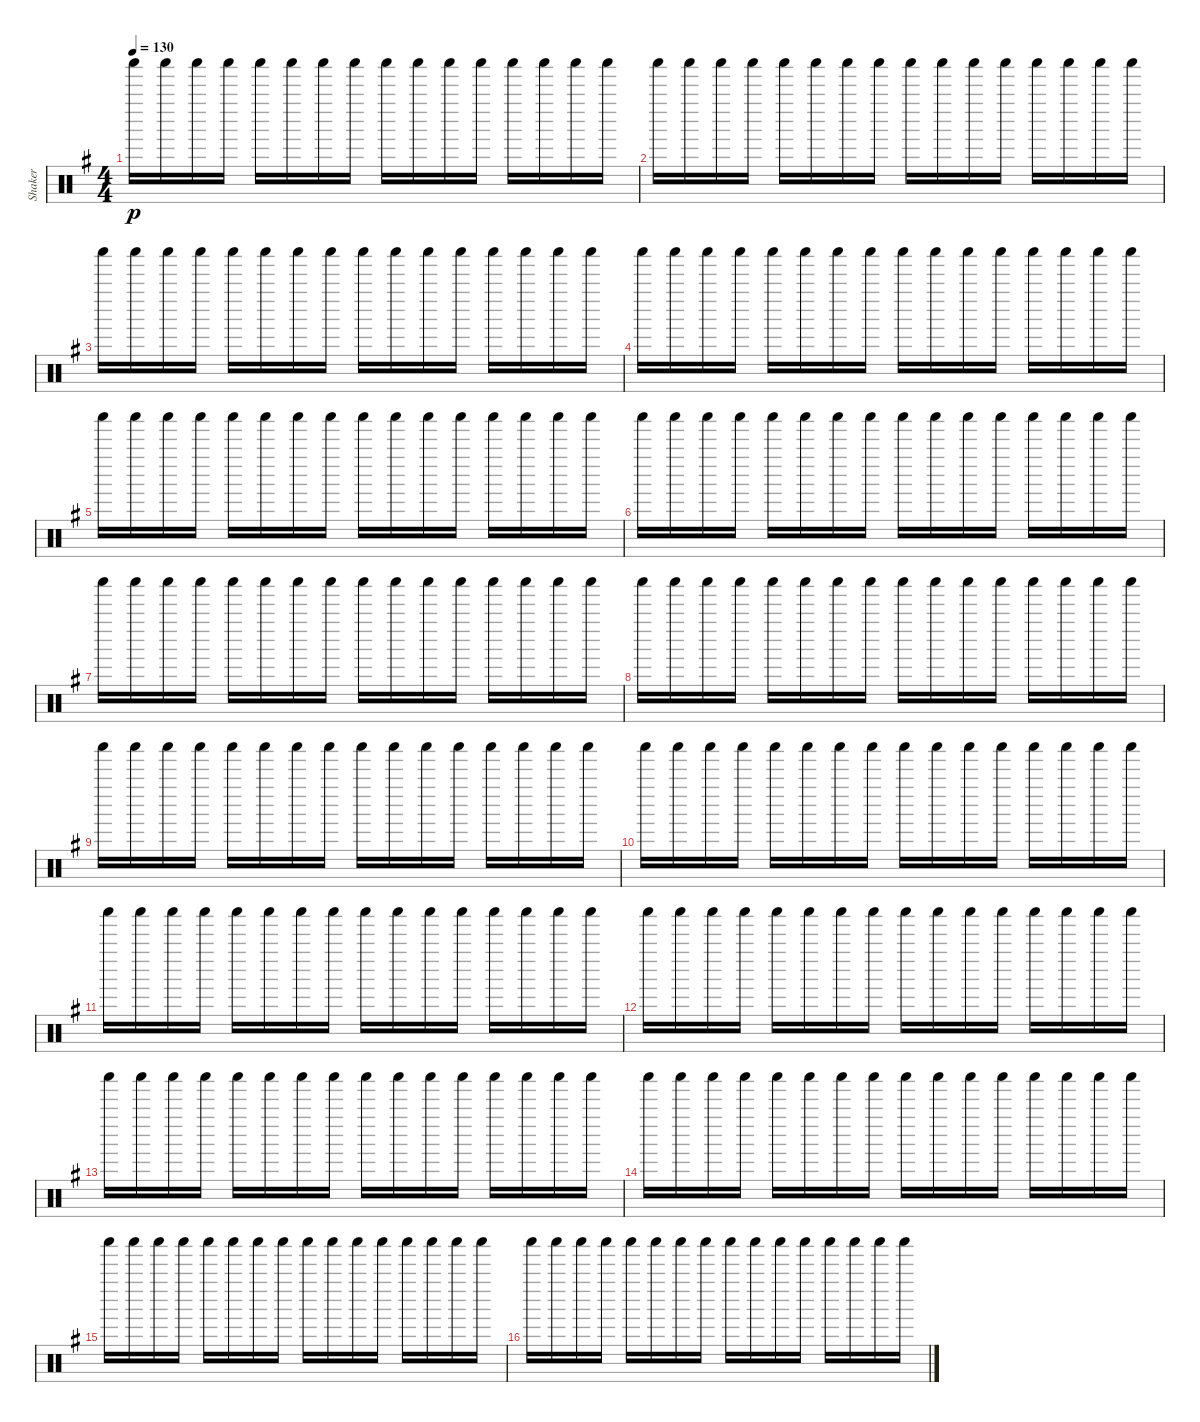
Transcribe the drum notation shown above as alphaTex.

\track ("Shaker" "Shaker") {instrument percussion}
\staff {score}
\articulation defaults
\ts (4 4)
\tempo 130
\clef neutral
\ks g "Shaker (hit)".16{dy p} "Shaker (hit)".16 "Shaker (hit)".16 "Shaker (hit)".16 "Shaker (hit)".16 "Shaker (hit)".16 "Shaker (hit)".16 "Shaker (hit)".16 "Shaker (hit)".16 "Shaker (hit)".16 "Shaker (hit)".16 "Shaker (hit)".16 "Shaker (hit)".16 "Shaker (hit)".16 "Shaker (hit)".16 "Shaker (hit)".16
|
"Shaker (hit)".16 "Shaker (hit)".16 "Shaker (hit)".16 "Shaker (hit)".16 "Shaker (hit)".16 "Shaker (hit)".16 "Shaker (hit)".16 "Shaker (hit)".16 "Shaker (hit)".16 "Shaker (hit)".16 "Shaker (hit)".16 "Shaker (hit)".16 "Shaker (hit)".16 "Shaker (hit)".16 "Shaker (hit)".16 "Shaker (hit)".16 |
"Shaker (hit)".16 "Shaker (hit)".16 "Shaker (hit)".16 "Shaker (hit)".16 "Shaker (hit)".16 "Shaker (hit)".16 "Shaker (hit)".16 "Shaker (hit)".16 "Shaker (hit)".16 "Shaker (hit)".16 "Shaker (hit)".16 "Shaker (hit)".16 "Shaker (hit)".16 "Shaker (hit)".16 "Shaker (hit)".16 "Shaker (hit)".16 |
"Shaker (hit)".16 "Shaker (hit)".16 "Shaker (hit)".16 "Shaker (hit)".16 "Shaker (hit)".16 "Shaker (hit)".16 "Shaker (hit)".16 "Shaker (hit)".16 "Shaker (hit)".16 "Shaker (hit)".16 "Shaker (hit)".16 "Shaker (hit)".16 "Shaker (hit)".16 "Shaker (hit)".16 "Shaker (hit)".16 "Shaker (hit)".16 |
"Shaker (hit)".16 "Shaker (hit)".16 "Shaker (hit)".16 "Shaker (hit)".16 "Shaker (hit)".16 "Shaker (hit)".16 "Shaker (hit)".16 "Shaker (hit)".16 "Shaker (hit)".16 "Shaker (hit)".16 "Shaker (hit)".16 "Shaker (hit)".16 "Shaker (hit)".16 "Shaker (hit)".16 "Shaker (hit)".16 "Shaker (hit)".16 |
"Shaker (hit)".16 "Shaker (hit)".16 "Shaker (hit)".16 "Shaker (hit)".16 "Shaker (hit)".16 "Shaker (hit)".16 "Shaker (hit)".16 "Shaker (hit)".16 "Shaker (hit)".16 "Shaker (hit)".16 "Shaker (hit)".16 "Shaker (hit)".16 "Shaker (hit)".16 "Shaker (hit)".16 "Shaker (hit)".16 "Shaker (hit)".16 |
"Shaker (hit)".16 "Shaker (hit)".16 "Shaker (hit)".16 "Shaker (hit)".16 "Shaker (hit)".16 "Shaker (hit)".16 "Shaker (hit)".16 "Shaker (hit)".16 "Shaker (hit)".16 "Shaker (hit)".16 "Shaker (hit)".16 "Shaker (hit)".16 "Shaker (hit)".16 "Shaker (hit)".16 "Shaker (hit)".16 "Shaker (hit)".16 |
"Shaker (hit)".16 "Shaker (hit)".16 "Shaker (hit)".16 "Shaker (hit)".16 "Shaker (hit)".16 "Shaker (hit)".16 "Shaker (hit)".16 "Shaker (hit)".16 "Shaker (hit)".16 "Shaker (hit)".16 "Shaker (hit)".16 "Shaker (hit)".16 "Shaker (hit)".16 "Shaker (hit)".16 "Shaker (hit)".16 "Shaker (hit)".16 |
"Shaker (hit)".16 "Shaker (hit)".16 "Shaker (hit)".16 "Shaker (hit)".16 "Shaker (hit)".16 "Shaker (hit)".16 "Shaker (hit)".16 "Shaker (hit)".16 "Shaker (hit)".16 "Shaker (hit)".16 "Shaker (hit)".16 "Shaker (hit)".16 "Shaker (hit)".16 "Shaker (hit)".16 "Shaker (hit)".16 "Shaker (hit)".16 |
"Shaker (hit)".16 "Shaker (hit)".16 "Shaker (hit)".16 "Shaker (hit)".16 "Shaker (hit)".16 "Shaker (hit)".16 "Shaker (hit)".16 "Shaker (hit)".16 "Shaker (hit)".16 "Shaker (hit)".16 "Shaker (hit)".16 "Shaker (hit)".16 "Shaker (hit)".16 "Shaker (hit)".16 "Shaker (hit)".16 "Shaker (hit)".16 |
"Shaker (hit)".16 "Shaker (hit)".16 "Shaker (hit)".16 "Shaker (hit)".16 "Shaker (hit)".16 "Shaker (hit)".16 "Shaker (hit)".16 "Shaker (hit)".16 "Shaker (hit)".16 "Shaker (hit)".16 "Shaker (hit)".16 "Shaker (hit)".16 "Shaker (hit)".16 "Shaker (hit)".16 "Shaker (hit)".16 "Shaker (hit)".16 |
"Shaker (hit)".16 "Shaker (hit)".16 "Shaker (hit)".16 "Shaker (hit)".16 "Shaker (hit)".16 "Shaker (hit)".16 "Shaker (hit)".16 "Shaker (hit)".16 "Shaker (hit)".16 "Shaker (hit)".16 "Shaker (hit)".16 "Shaker (hit)".16 "Shaker (hit)".16 "Shaker (hit)".16 "Shaker (hit)".16 "Shaker (hit)".16 |
"Shaker (hit)".16 "Shaker (hit)".16 "Shaker (hit)".16 "Shaker (hit)".16 "Shaker (hit)".16 "Shaker (hit)".16 "Shaker (hit)".16 "Shaker (hit)".16 "Shaker (hit)".16 "Shaker (hit)".16 "Shaker (hit)".16 "Shaker (hit)".16 "Shaker (hit)".16 "Shaker (hit)".16 "Shaker (hit)".16 "Shaker (hit)".16 |
"Shaker (hit)".16 "Shaker (hit)".16 "Shaker (hit)".16 "Shaker (hit)".16 "Shaker (hit)".16 "Shaker (hit)".16 "Shaker (hit)".16 "Shaker (hit)".16 "Shaker (hit)".16 "Shaker (hit)".16 "Shaker (hit)".16 "Shaker (hit)".16 "Shaker (hit)".16 "Shaker (hit)".16 "Shaker (hit)".16 "Shaker (hit)".16 |
"Shaker (hit)".16 "Shaker (hit)".16 "Shaker (hit)".16 "Shaker (hit)".16 "Shaker (hit)".16 "Shaker (hit)".16 "Shaker (hit)".16 "Shaker (hit)".16 "Shaker (hit)".16 "Shaker (hit)".16 "Shaker (hit)".16 "Shaker (hit)".16 "Shaker (hit)".16 "Shaker (hit)".16 "Shaker (hit)".16 "Shaker (hit)".16 |
"Shaker (hit)".16 "Shaker (hit)".16 "Shaker (hit)".16 "Shaker (hit)".16 "Shaker (hit)".16 "Shaker (hit)".16 "Shaker (hit)".16 "Shaker (hit)".16 "Shaker (hit)".16 "Shaker (hit)".16 "Shaker (hit)".16 "Shaker (hit)".16 "Shaker (hit)".16 "Shaker (hit)".16 "Shaker (hit)".16 "Shaker (hit)".16
